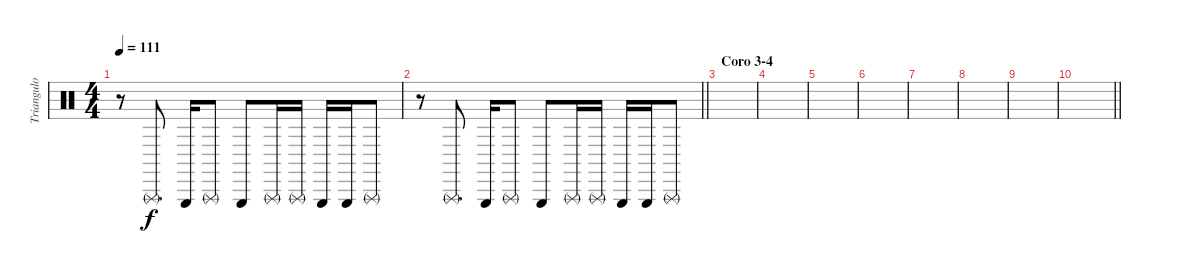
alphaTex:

\track ("Triangulo" "Triangulo") {instrument percussion}
\staff {score}
\articulation defaults
\ts (4 4)
\tempo 111
\clef neutral
\ks c
r.8{dy f} "Triangle (rnute)".8{d} "Triangle (hit)".16 "Triangle (rnute)".8 "Triangle (hit)".8 "Triangle (rnute)".16 "Triangle (rnute)".16 "Triangle (hit)".16 "Triangle (hit)".16 "Triangle (rnute)".8 |
\barLineRight lightlight
r.8 "Triangle (rnute)".8{d} "Triangle (hit)".16 "Triangle (rnute)".8 "Triangle (hit)".8 "Triangle (rnute)".16 "Triangle (rnute)".16 "Triangle (hit)".16 "Triangle (hit)".16 "Triangle (rnute)".8 |
\section ("" "Coro 3-4")
|
|
|
|
|
|
|
\barLineRight lightlight
